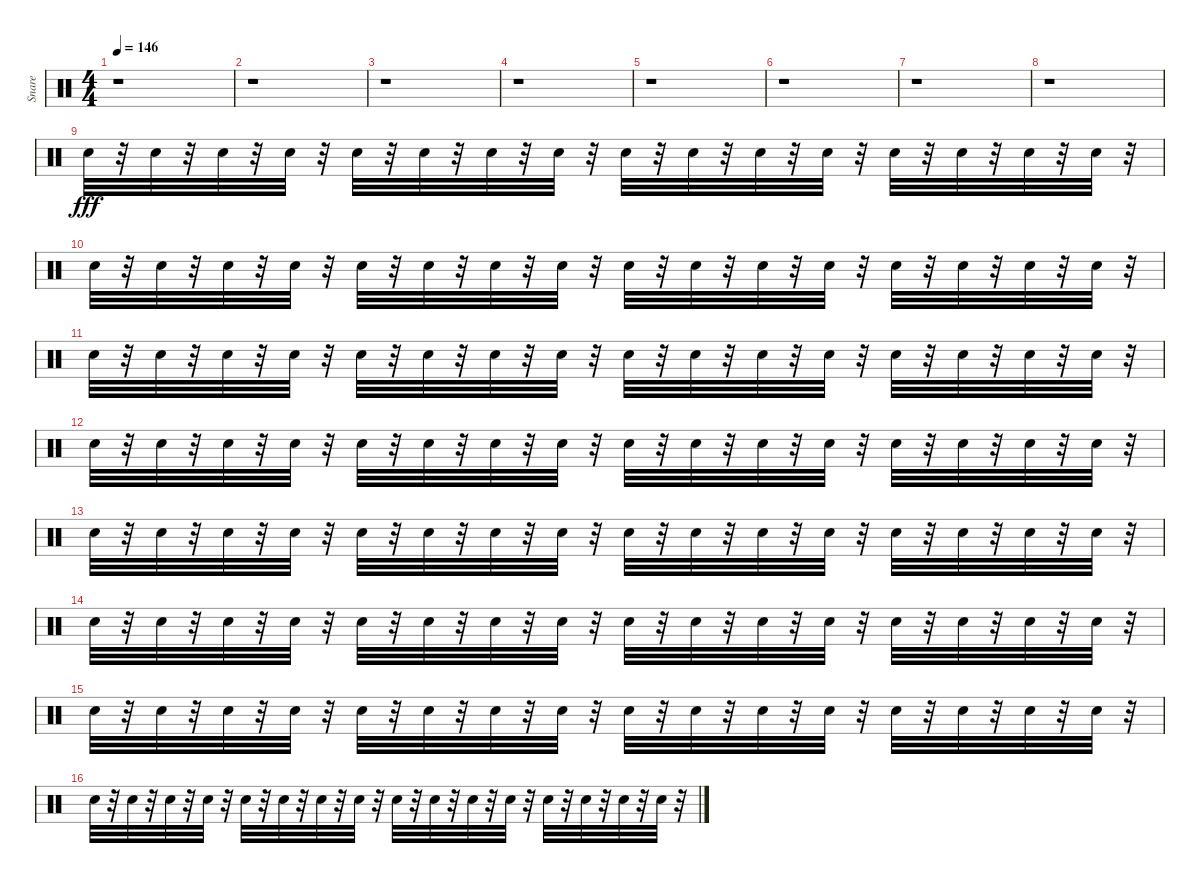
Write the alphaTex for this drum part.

\track ("Snare" "Snare") {instrument percussion}
\staff {score}
\articulation defaults
\ts (4 4)
\tempo 146
\clef neutral
\ks c
r.1{dy fff} |
r.1 |
r.1 |
r.1 |
r.1 |
r.1 |
r.1 |
r.1 |
"Electric Snare (hit)".32{volume 0} r.32 "Electric Snare (hit)".32{volume 0} r.32 "Electric Snare (hit)".32{volume 0} r.32 "Electric Snare (hit)".32{volume 0} r.32 "Electric Snare (hit)".32{volume 0} r.32 "Electric Snare (hit)".32{volume 0} r.32 "Electric Snare (hit)".32{volume 0} r.32 "Electric Snare (hit)".32{volume 0} r.32 "Electric Snare (hit)".32{volume 1} r.32 "Electric Snare (hit)".32{volume 1} r.32 "Electric Snare (hit)".32{volume 1} r.32 "Electric Snare (hit)".32{volume 1} r.32 "Electric Snare (hit)".32{volume 1} r.32 "Electric Snare (hit)".32{volume 1} r.32 "Electric Snare (hit)".32{volume 1} r.32 "Electric Snare (hit)".32{volume 1} r.32 |
"Electric Snare (hit)".32{volume 1} r.32 "Electric Snare (hit)".32{volume 1} r.32 "Electric Snare (hit)".32{volume 2} r.32 "Electric Snare (hit)".32{volume 2} r.32 "Electric Snare (hit)".32{volume 2} r.32 "Electric Snare (hit)".32{volume 2} r.32 "Electric Snare (hit)".32{volume 2} r.32 "Electric Snare (hit)".32{volume 2} r.32 "Electric Snare (hit)".32{volume 2} r.32 "Electric Snare (hit)".32{volume 2} r.32 "Electric Snare (hit)".32{volume 2} r.32 "Electric Snare (hit)".32{volume 2} r.32 "Electric Snare (hit)".32{volume 2} r.32 "Electric Snare (hit)".32{volume 2} r.32 "Electric Snare (hit)".32{volume 3} r.32 "Electric Snare (hit)".32{volume 3} r.32 |
"Electric Snare (hit)".32{volume 3} r.32 "Electric Snare (hit)".32{volume 3} r.32 "Electric Snare (hit)".32{volume 3} r.32 "Electric Snare (hit)".32{volume 3} r.32 "Electric Snare (hit)".32{volume 3} r.32 "Electric Snare (hit)".32{volume 3} r.32 "Electric Snare (hit)".32{volume 3} r.32 "Electric Snare (hit)".32{volume 3} r.32 "Electric Snare (hit)".32{volume 4} r.32 "Electric Snare (hit)".32{volume 4} r.32 "Electric Snare (hit)".32{volume 4} r.32 "Electric Snare (hit)".32{volume 4} r.32 "Electric Snare (hit)".32{volume 4} r.32 "Electric Snare (hit)".32{volume 4} r.32 "Electric Snare (hit)".32{volume 4} r.32 "Electric Snare (hit)".32{volume 4} r.32 |
"Electric Snare (hit)".32{volume 4} r.32 "Electric Snare (hit)".32{volume 4} r.32 "Electric Snare (hit)".32{volume 4} r.32 "Electric Snare (hit)".32{volume 4} r.32 "Electric Snare (hit)".32{volume 4} r.32 "Electric Snare (hit)".32{volume 5} r.32 "Electric Snare (hit)".32{volume 5} r.32 "Electric Snare (hit)".32{volume 5} r.32 "Electric Snare (hit)".32{volume 5} r.32 "Electric Snare (hit)".32{volume 5} r.32 "Electric Snare (hit)".32{volume 5} r.32 "Electric Snare (hit)".32{volume 5} r.32 "Electric Snare (hit)".32{volume 5} r.32 "Electric Snare (hit)".32{volume 5} r.32 "Electric Snare (hit)".32{volume 5} r.32 "Electric Snare (hit)".32{volume 6} r.32 |
"Electric Snare (hit)".32{volume 6} r.32 "Electric Snare (hit)".32{volume 6} r.32 "Electric Snare (hit)".32{volume 6} r.32 "Electric Snare (hit)".32{volume 6} r.32 "Electric Snare (hit)".32{volume 6} r.32 "Electric Snare (hit)".32{volume 6} r.32 "Electric Snare (hit)".32{volume 6} r.32 "Electric Snare (hit)".32{volume 6} r.32 "Electric Snare (hit)".32{volume 6} r.32 "Electric Snare (hit)".32{volume 6} r.32 "Electric Snare (hit)".32{volume 6} r.32 "Electric Snare (hit)".32{volume 6} r.32 "Electric Snare (hit)".32{volume 7} r.32 "Electric Snare (hit)".32{volume 7} r.32 "Electric Snare (hit)".32{volume 7} r.32 "Electric Snare (hit)".32{volume 7} r.32 |
"Electric Snare (hit)".32{volume 7} r.32 "Electric Snare (hit)".32{volume 7} r.32 "Electric Snare (hit)".32{volume 7} r.32 "Electric Snare (hit)".32{volume 7} r.32 "Electric Snare (hit)".32{volume 7} r.32 "Electric Snare (hit)".32{volume 7} r.32 "Electric Snare (hit)".32{volume 8} r.32 "Electric Snare (hit)".32{volume 8} r.32 "Electric Snare (hit)".32{volume 8} r.32 "Electric Snare (hit)".32{volume 8} r.32 "Electric Snare (hit)".32{volume 8} r.32 "Electric Snare (hit)".32{volume 8} r.32 "Electric Snare (hit)".32{volume 8} r.32 "Electric Snare (hit)".32{volume 8} r.32 "Electric Snare (hit)".32{volume 8} r.32 "Electric Snare (hit)".32{volume 8} r.32 |
"Electric Snare (hit)".32{volume 8} r.32 "Electric Snare (hit)".32{volume 8} r.32 "Electric Snare (hit)".32{volume 8} r.32 "Electric Snare (hit)".32{volume 9} r.32 "Electric Snare (hit)".32{volume 9} r.32 "Electric Snare (hit)".32{volume 9} r.32 "Electric Snare (hit)".32{volume 9} r.32 "Electric Snare (hit)".32{volume 9} r.32 "Electric Snare (hit)".32{volume 9} r.32 "Electric Snare (hit)".32{volume 9} r.32 "Electric Snare (hit)".32{volume 9} r.32 "Electric Snare (hit)".32{volume 9} r.32 "Electric Snare (hit)".32{volume 9} r.32 "Electric Snare (hit)".32{volume 10} r.32 "Electric Snare (hit)".32{volume 10} r.32 "Electric Snare (hit)".32{volume 10} r.32 |
"Electric Snare (hit)".32{volume 10} r.32 "Electric Snare (hit)".32{volume 10} r.32 "Electric Snare (hit)".32{volume 10} r.32 "Electric Snare (hit)".32{volume 10} r.32 "Electric Snare (hit)".32{volume 10} r.32 "Electric Snare (hit)".32{volume 10} r.32 "Electric Snare (hit)".32{volume 10} r.32 "Electric Snare (hit)".32{volume 10} r.32 "Electric Snare (hit)".32{volume 10} r.32 "Electric Snare (hit)".32{volume 11} r.32 "Electric Snare (hit)".32{volume 11} r.32 "Electric Snare (hit)".32{volume 11} r.32 "Electric Snare (hit)".32{volume 11} r.32 "Electric Snare (hit)".32{volume 11} r.32 "Electric Snare (hit)".32{volume 11} r.32 "Electric Snare (hit)".32{volume 11} r.32
